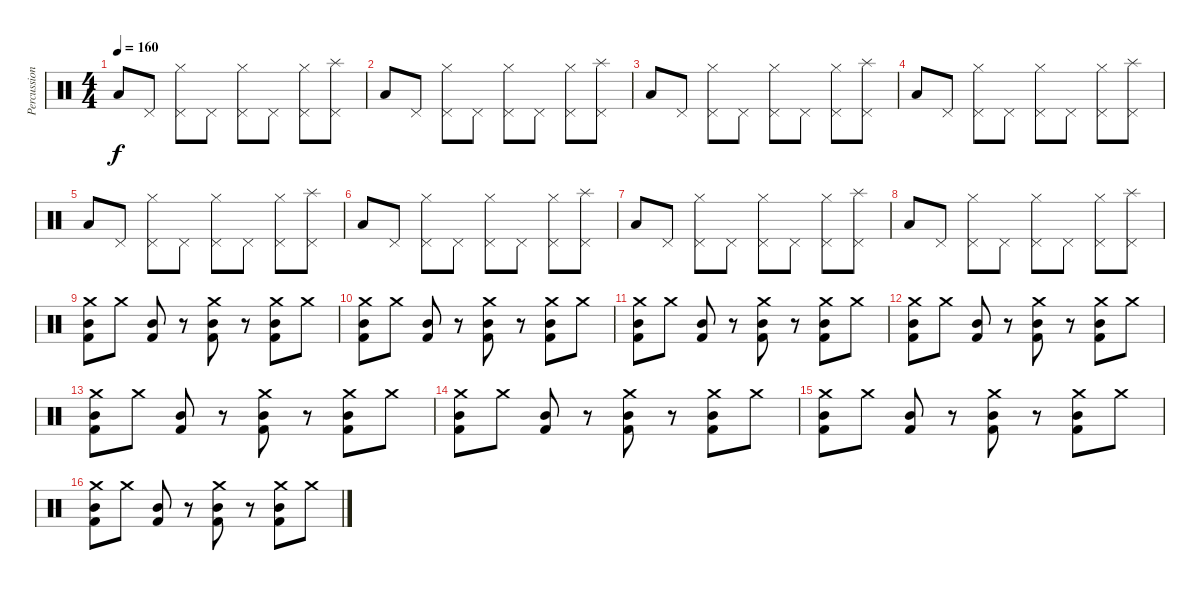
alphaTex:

\track ("Percussion" "Percussion") {instrument percussion}
\staff {score}
\articulation defaults
\ts (4 4)
\tempo 160
\clef neutral
\ks c "Low Tom (hit)".8{dy f} "Pedal Hi-Hat (hit)".8
("Pedal Hi-Hat (hit)" "Hi-Hat (closed)").8 "Pedal Hi-Hat (hit)".8 ("Pedal Hi-Hat (hit)" "Hi-Hat (closed)").8 "Pedal Hi-Hat (hit)".8 ("Pedal Hi-Hat (hit)" "Hi-Hat (closed)").8 ("Pedal Hi-Hat (hit)" "Splash (hit)").8 |
"Low Tom (hit)".8 "Pedal Hi-Hat (hit)".8 ("Pedal Hi-Hat (hit)" "Hi-Hat (closed)").8 "Pedal Hi-Hat (hit)".8 ("Pedal Hi-Hat (hit)" "Hi-Hat (closed)").8 "Pedal Hi-Hat (hit)".8 ("Pedal Hi-Hat (hit)" "Hi-Hat (closed)").8 ("Pedal Hi-Hat (hit)" "Splash (hit)").8 |
"Low Tom (hit)".8 "Pedal Hi-Hat (hit)".8 ("Pedal Hi-Hat (hit)" "Hi-Hat (closed)").8 "Pedal Hi-Hat (hit)".8 ("Pedal Hi-Hat (hit)" "Hi-Hat (closed)").8 "Pedal Hi-Hat (hit)".8 ("Pedal Hi-Hat (hit)" "Hi-Hat (closed)").8 ("Pedal Hi-Hat (hit)" "Splash (hit)").8 |
"Low Tom (hit)".8 "Pedal Hi-Hat (hit)".8 ("Pedal Hi-Hat (hit)" "Hi-Hat (closed)").8 "Pedal Hi-Hat (hit)".8 ("Pedal Hi-Hat (hit)" "Hi-Hat (closed)").8 "Pedal Hi-Hat (hit)".8 ("Pedal Hi-Hat (hit)" "Hi-Hat (closed)").8 ("Pedal Hi-Hat (hit)" "Splash (hit)").8 |
"Low Tom (hit)".8 "Pedal Hi-Hat (hit)".8 ("Pedal Hi-Hat (hit)" "Hi-Hat (closed)").8 "Pedal Hi-Hat (hit)".8 ("Pedal Hi-Hat (hit)" "Hi-Hat (closed)").8 "Pedal Hi-Hat (hit)".8 ("Pedal Hi-Hat (hit)" "Hi-Hat (closed)").8 ("Pedal Hi-Hat (hit)" "Splash (hit)").8 |
"Low Tom (hit)".8 "Pedal Hi-Hat (hit)".8 ("Pedal Hi-Hat (hit)" "Hi-Hat (closed)").8 "Pedal Hi-Hat (hit)".8 ("Pedal Hi-Hat (hit)" "Hi-Hat (closed)").8 "Pedal Hi-Hat (hit)".8 ("Pedal Hi-Hat (hit)" "Hi-Hat (closed)").8 ("Pedal Hi-Hat (hit)" "Splash (hit)").8 |
"Low Tom (hit)".8 "Pedal Hi-Hat (hit)".8 ("Pedal Hi-Hat (hit)" "Hi-Hat (closed)").8 "Pedal Hi-Hat (hit)".8 ("Pedal Hi-Hat (hit)" "Hi-Hat (closed)").8 "Pedal Hi-Hat (hit)".8 ("Pedal Hi-Hat (hit)" "Hi-Hat (closed)").8 ("Pedal Hi-Hat (hit)" "Splash (hit)").8 |
"Low Tom (hit)".8 "Pedal Hi-Hat (hit)".8 ("Pedal Hi-Hat (hit)" "Hi-Hat (closed)").8 "Pedal Hi-Hat (hit)".8 ("Pedal Hi-Hat (hit)" "Hi-Hat (closed)").8 "Pedal Hi-Hat (hit)".8 ("Pedal Hi-Hat (hit)" "Hi-Hat (closed)").8 ("Pedal Hi-Hat (hit)" "Splash (hit)").8 |
("Crash medium (hit)" "Mid Tom (hit)" "Kick (hit) 2").8 "Crash medium (hit)".8 ("Mid Tom (hit)" "Kick (hit) 2").8 r.8 ("Crash medium (hit)" "Mid Tom (hit)" "Kick (hit) 2").8 r.8 ("Crash medium (hit)" "Mid Tom (hit)" "Kick (hit) 2").8 "Crash medium (hit)".8 |
("Crash medium (hit)" "Mid Tom (hit)" "Kick (hit) 2").8 "Crash medium (hit)".8 ("Mid Tom (hit)" "Kick (hit) 2").8 r.8 ("Crash medium (hit)" "Mid Tom (hit)" "Kick (hit) 2").8 r.8 ("Crash medium (hit)" "Mid Tom (hit)" "Kick (hit) 2").8 "Crash medium (hit)".8 |
("Crash medium (hit)" "Mid Tom (hit)" "Kick (hit) 2").8 "Crash medium (hit)".8 ("Mid Tom (hit)" "Kick (hit) 2").8 r.8 ("Crash medium (hit)" "Mid Tom (hit)" "Kick (hit) 2").8 r.8 ("Crash medium (hit)" "Mid Tom (hit)" "Kick (hit) 2").8 "Crash medium (hit)".8 |
("Crash medium (hit)" "Mid Tom (hit)" "Kick (hit) 2").8 "Crash medium (hit)".8 ("Mid Tom (hit)" "Kick (hit) 2").8 r.8 ("Crash medium (hit)" "Mid Tom (hit)" "Kick (hit) 2").8 r.8 ("Crash medium (hit)" "Mid Tom (hit)" "Kick (hit) 2").8 "Crash medium (hit)".8 |
("Crash medium (hit)" "Mid Tom (hit)" "Kick (hit) 2").8 "Crash medium (hit)".8 ("Mid Tom (hit)" "Kick (hit) 2").8 r.8 ("Crash medium (hit)" "Mid Tom (hit)" "Kick (hit) 2").8 r.8 ("Crash medium (hit)" "Mid Tom (hit)" "Kick (hit) 2").8 "Crash medium (hit)".8 |
("Crash medium (hit)" "Mid Tom (hit)" "Kick (hit) 2").8 "Crash medium (hit)".8 ("Mid Tom (hit)" "Kick (hit) 2").8 r.8 ("Crash medium (hit)" "Mid Tom (hit)" "Kick (hit) 2").8 r.8 ("Crash medium (hit)" "Mid Tom (hit)" "Kick (hit) 2").8 "Crash medium (hit)".8 |
("Crash medium (hit)" "Mid Tom (hit)" "Kick (hit) 2").8 "Crash medium (hit)".8 ("Mid Tom (hit)" "Kick (hit) 2").8 r.8 ("Crash medium (hit)" "Mid Tom (hit)" "Kick (hit) 2").8 r.8 ("Crash medium (hit)" "Mid Tom (hit)" "Kick (hit) 2").8 "Crash medium (hit)".8 |
("Crash medium (hit)" "Mid Tom (hit)" "Kick (hit) 2").8 "Crash medium (hit)".8 ("Mid Tom (hit)" "Kick (hit) 2").8 r.8 ("Crash medium (hit)" "Mid Tom (hit)" "Kick (hit) 2").8 r.8 ("Crash medium (hit)" "Mid Tom (hit)" "Kick (hit) 2").8 "Crash medium (hit)".8
